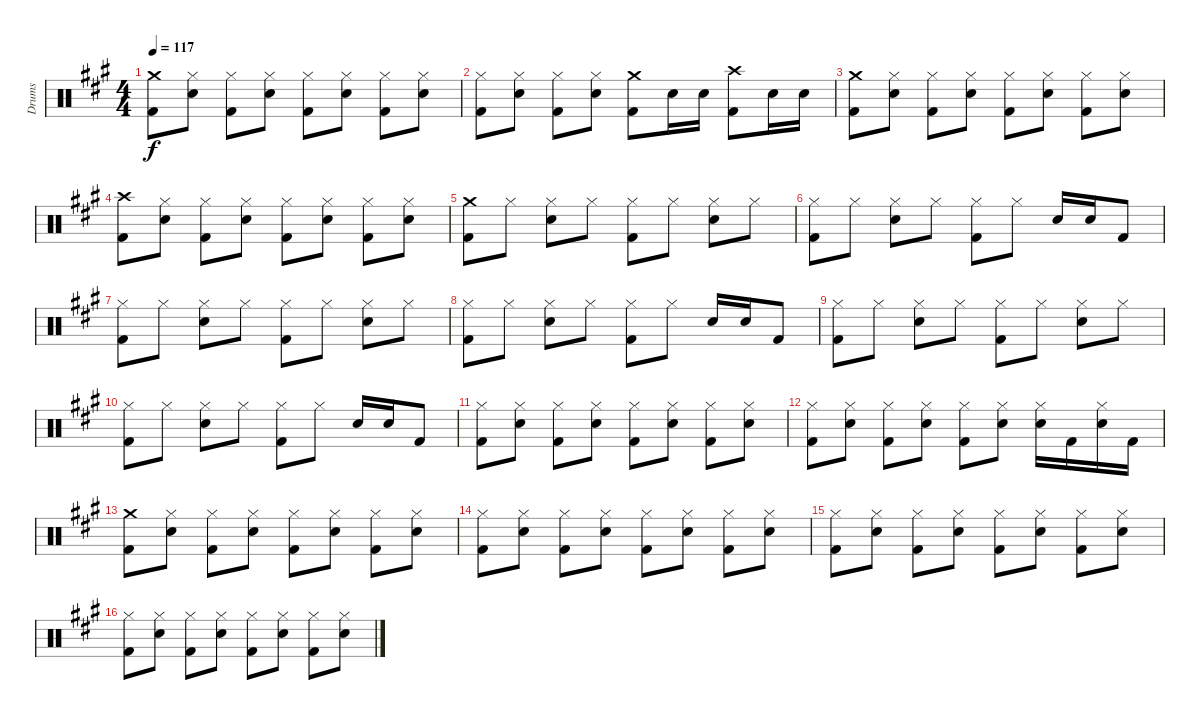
\track ("Drums" "Drums") {instrument percussion}
\staff {score}
\articulation defaults
\ts (4 4)
\tempo 117
\clef neutral
\ks a
("Crash medium (hit)" "Kick (hit) 2").8{dy f} ("Hi-Hat (closed)" "Snare (hit) 2").8 ("Hi-Hat (closed)" "Kick (hit) 2").8 ("Hi-Hat (closed)" "Snare (hit) 2").8 ("Hi-Hat (closed)" "Kick (hit) 2").8 ("Hi-Hat (closed)" "Snare (hit) 2").8 ("Hi-Hat (closed)" "Kick (hit) 2").8 ("Hi-Hat (closed)" "Snare (hit) 2").8 |
("Hi-Hat (closed)" "Kick (hit) 2").8 ("Hi-Hat (closed)" "Snare (hit) 2").8 ("Hi-Hat (closed)" "Kick (hit) 2").8 ("Hi-Hat (closed)" "Snare (hit) 2").8 ("Crash medium (hit)" "Kick (hit) 2").8 "Snare (hit) 2".16 "Snare (hit) 2".16 ("Crash high (hit)" "Kick (hit) 2").8 "Snare (hit) 2".16 "Snare (hit) 2".16 |
("Crash medium (hit)" "Kick (hit) 2").8 ("Hi-Hat (closed)" "Snare (hit) 2").8 ("Hi-Hat (closed)" "Kick (hit) 2").8 ("Hi-Hat (closed)" "Snare (hit) 2").8 ("Hi-Hat (closed)" "Kick (hit) 2").8 ("Hi-Hat (closed)" "Snare (hit) 2").8 ("Hi-Hat (closed)" "Kick (hit) 2").8 ("Hi-Hat (closed)" "Snare (hit) 2").8 |
("Crash high (hit)" "Kick (hit) 2").8 ("Hi-Hat (closed)" "Snare (hit) 2").8 ("Hi-Hat (closed)" "Kick (hit) 2").8 ("Hi-Hat (closed)" "Snare (hit) 2").8 ("Hi-Hat (closed)" "Kick (hit) 2").8 ("Hi-Hat (closed)" "Snare (hit) 2").8 ("Hi-Hat (closed)" "Kick (hit) 2").8 ("Hi-Hat (closed)" "Snare (hit) 2").8 |
("Crash medium (hit)" "Kick (hit) 2").8 "Hi-Hat (closed)".8 ("Hi-Hat (closed)" "Snare (hit) 2").8 "Hi-Hat (closed)".8 ("Hi-Hat (closed)" "Kick (hit) 2").8 "Hi-Hat (closed)".8 ("Hi-Hat (closed)" "Snare (hit) 2").8 "Hi-Hat (closed)".8 |
("Hi-Hat (closed)" "Kick (hit) 2").8 "Hi-Hat (closed)".8 ("Hi-Hat (closed)" "Snare (hit) 2").8 "Hi-Hat (closed)".8 ("Hi-Hat (closed)" "Kick (hit) 2").8 "Hi-Hat (closed)".8 "Snare (hit) 2".16 "Snare (hit) 2".16 "Kick (hit) 2".8 |
("Hi-Hat (closed)" "Kick (hit) 2").8 "Hi-Hat (closed)".8 ("Hi-Hat (closed)" "Snare (hit) 2").8 "Hi-Hat (closed)".8 ("Hi-Hat (closed)" "Kick (hit) 2").8 "Hi-Hat (closed)".8 ("Hi-Hat (closed)" "Snare (hit) 2").8 "Hi-Hat (closed)".8 |
("Hi-Hat (closed)" "Kick (hit) 2").8 "Hi-Hat (closed)".8 ("Hi-Hat (closed)" "Snare (hit) 2").8 "Hi-Hat (closed)".8 ("Hi-Hat (closed)" "Kick (hit) 2").8 "Hi-Hat (closed)".8 "Snare (hit) 2".16 "Snare (hit) 2".16 "Kick (hit) 2".8 |
("Hi-Hat (closed)" "Kick (hit) 2").8 "Hi-Hat (closed)".8 ("Hi-Hat (closed)" "Snare (hit) 2").8 "Hi-Hat (closed)".8 ("Hi-Hat (closed)" "Kick (hit) 2").8 "Hi-Hat (closed)".8 ("Hi-Hat (closed)" "Snare (hit) 2").8 "Hi-Hat (closed)".8 |
("Hi-Hat (closed)" "Kick (hit) 2").8 "Hi-Hat (closed)".8 ("Hi-Hat (closed)" "Snare (hit) 2").8 "Hi-Hat (closed)".8 ("Hi-Hat (closed)" "Kick (hit) 2").8 "Hi-Hat (closed)".8 "Snare (hit) 2".16 "Snare (hit) 2".16 "Kick (hit) 2".8 |
("Hi-Hat (closed)" "Kick (hit) 2").8 ("Hi-Hat (closed)" "Snare (hit) 2").8 ("Hi-Hat (closed)" "Kick (hit) 2").8 ("Hi-Hat (closed)" "Snare (hit) 2").8 ("Hi-Hat (closed)" "Kick (hit) 2").8 ("Hi-Hat (closed)" "Snare (hit) 2").8 ("Hi-Hat (closed)" "Kick (hit) 2").8 ("Hi-Hat (closed)" "Snare (hit) 2").8 |
("Hi-Hat (closed)" "Kick (hit) 2").8 ("Hi-Hat (closed)" "Snare (hit) 2").8 ("Hi-Hat (closed)" "Kick (hit) 2").8 ("Hi-Hat (closed)" "Snare (hit) 2").8 ("Hi-Hat (closed)" "Kick (hit) 2").8 ("Hi-Hat (closed)" "Snare (hit) 2").8 ("Hi-Hat (closed)" "Snare (hit) 2").16 "Kick (hit) 2".16 ("Hi-Hat (closed)" "Snare (hit) 2").16 "Kick (hit) 2".16 |
("Crash medium (hit)" "Kick (hit) 2").8 ("Hi-Hat (closed)" "Snare (hit) 2").8 ("Hi-Hat (closed)" "Kick (hit) 2").8 ("Hi-Hat (closed)" "Snare (hit) 2").8 ("Hi-Hat (closed)" "Kick (hit) 2").8 ("Hi-Hat (closed)" "Snare (hit) 2").8 ("Hi-Hat (closed)" "Kick (hit) 2").8 ("Hi-Hat (closed)" "Snare (hit) 2").8 |
("Hi-Hat (closed)" "Kick (hit) 2").8 ("Hi-Hat (closed)" "Snare (hit) 2").8 ("Hi-Hat (closed)" "Kick (hit) 2").8 ("Hi-Hat (closed)" "Snare (hit) 2").8 ("Hi-Hat (closed)" "Kick (hit) 2").8 ("Hi-Hat (closed)" "Snare (hit) 2").8 ("Hi-Hat (closed)" "Kick (hit) 2").8 ("Hi-Hat (closed)" "Snare (hit) 2").8 |
("Hi-Hat (closed)" "Kick (hit) 2").8 ("Hi-Hat (closed)" "Snare (hit) 2").8 ("Hi-Hat (closed)" "Kick (hit) 2").8 ("Hi-Hat (closed)" "Snare (hit) 2").8 ("Hi-Hat (closed)" "Kick (hit) 2").8 ("Hi-Hat (closed)" "Snare (hit) 2").8 ("Hi-Hat (closed)" "Kick (hit) 2").8 ("Hi-Hat (closed)" "Snare (hit) 2").8 |
("Hi-Hat (closed)" "Kick (hit) 2").8 ("Hi-Hat (closed)" "Snare (hit) 2").8 ("Hi-Hat (closed)" "Kick (hit) 2").8 ("Hi-Hat (closed)" "Snare (hit) 2").8 ("Hi-Hat (closed)" "Kick (hit) 2").8 ("Hi-Hat (closed)" "Snare (hit) 2").8 ("Hi-Hat (closed)" "Kick (hit) 2").8 ("Hi-Hat (closed)" "Snare (hit) 2").8
